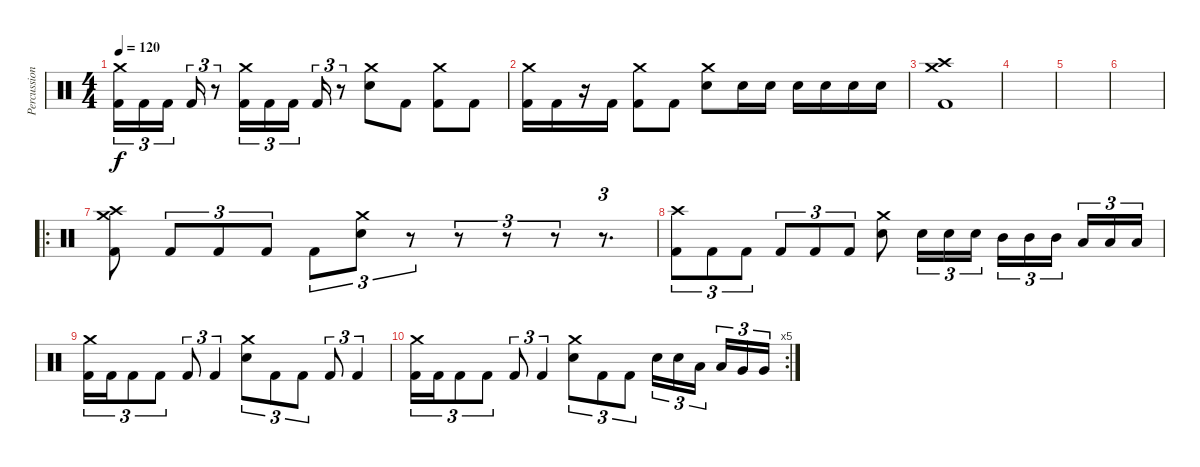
\track ("Percussion" "Percussion") {instrument percussion}
\staff {score}
\articulation defaults
\ts (4 4)
\tempo 120
\clef neutral
\ks c
("Crash medium (hit)" "Kick (hit) 2").16{tu (3 2) dy f} "Kick (hit) 2".16{tu (3 2)} "Kick (hit) 2".16{tu (3 2) beam splitsecondary} "Kick (hit) 2".16{tu (3 2)} r.8{tu (3 2)} ("Crash medium (hit)" "Kick (hit) 2").16{tu (3 2)} "Kick (hit) 2".16{tu (3 2)} "Kick (hit) 2".16{tu (3 2) beam splitsecondary} "Kick (hit) 2".16{tu (3 2)} r.8{tu (3 2)} ("Crash medium (hit)" "Electric Snare (hit)").8 "Kick (hit) 2".8 ("Crash medium (hit)" "Kick (hit) 2").8 "Kick (hit) 2".8 |
("Crash medium (hit)" "Kick (hit) 2").16 "Kick (hit) 2".16 r.16 "Kick (hit) 2".16 ("Crash medium (hit)" "Kick (hit) 2").8 "Kick (hit) 2".8 ("Crash medium (hit)" "Electric Snare (hit)").8 "Electric Snare (hit)".16 "Electric Snare (hit)".16 "Electric Snare (hit)".16 "Electric Snare (hit)".16 "Electric Snare (hit)".16 "Electric Snare (hit)".16 |
("Crash high (hit)" "Crash medium (hit)" "Kick (hit) 2").1 |
|
|
|
\ro
("Crash high (hit)" "Crash medium (hit)" "Kick (hit) 2").8 "Kick (hit) 2".8{tu (3 2)} "Kick (hit) 2".8{tu (3 2)} "Kick (hit) 2".8{tu (3 2)} "Kick (hit) 2".8{tu (3 2)} ("Crash medium (hit)" "Electric Snare (hit)").8{tu (3 2)} r.8{tu (3 2)} r.8{tu (3 2)} r.8{tu (3 2)} r.8{tu (3 2)} r.8{d tu (3 2)} |
("Crash high (hit)" "Kick (hit) 2").8{tu (3 2)} "Kick (hit) 2".8{tu (3 2)} "Kick (hit) 2".8{tu (3 2)} "Kick (hit) 2".8{tu (3 2)} "Kick (hit) 2".8{tu (3 2)} "Kick (hit) 2".8{tu (3 2)} ("Crash medium (hit)" "Electric Snare (hit)").8 "Electric Snare (hit)".16{tu (3 2)} "Electric Snare (hit)".16{tu (3 2)} "Electric Snare (hit)".16{tu (3 2)} "Mid Tom (hit)".16{tu (3 2)} "Mid Tom (hit)".16{tu (3 2)} "Mid Tom (hit)".16{tu (3 2) beam splitsecondary} "Low Tom (hit)".16{tu (3 2)} "Low Tom (hit)".16{tu (3 2)} "Low Tom (hit)".16{tu (3 2)} |
("Crash medium (hit)" "Kick (hit) 2").16{tu (3 2)} "Kick (hit) 2".16{tu (3 2)} "Kick (hit) 2".8{tu (3 2)} "Kick (hit) 2".8{tu (3 2)} "Kick (hit) 2".8{tu (3 2)} "Kick (hit) 2".4{tu (3 2)} ("Crash medium (hit)" "Electric Snare (hit)").8{tu (3 2)} "Kick (hit) 2".8{tu (3 2)} "Kick (hit) 2".8{tu (3 2)} "Kick (hit) 2".8{tu (3 2)} "Kick (hit) 2".4{tu (3 2)} |
\rc 5
("Crash medium (hit)" "Kick (hit) 2").16{tu (3 2)} "Kick (hit) 2".16{tu (3 2)} "Kick (hit) 2".8{tu (3 2)} "Kick (hit) 2".8{tu (3 2)} "Kick (hit) 2".8{tu (3 2)} "Kick (hit) 2".4{tu (3 2)} ("Crash medium (hit)" "Electric Snare (hit)").8{tu (3 2)} "Kick (hit) 2".8{tu (3 2)} "Kick (hit) 2".8{tu (3 2)} "Electric Snare (hit)".16{tu (3 2)} "Electric Snare (hit)".16{tu (3 2)} "Low Tom (hit)".16{tu (3 2) beam splitsecondary} "Low Tom (hit)".16{tu (3 2)} "Very Low Tom (hit)".16{tu (3 2)} "Very Low Tom (hit)".16{tu (3 2)}
